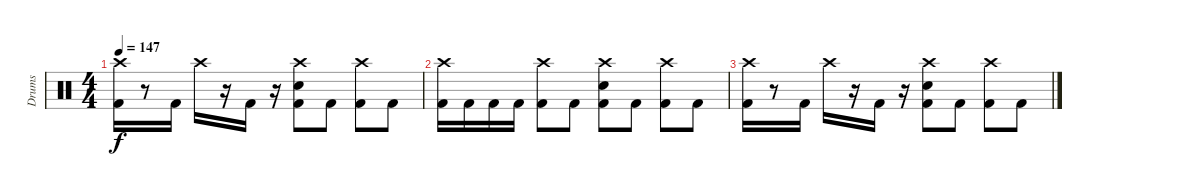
\track ("Drums" "Drums") {instrument percussion}
\staff {score}
\articulation defaults
\ts (4 4)
\tempo 147
\clef neutral
\ks c
("Crash high (hit)" "Kick (hit) 2").16{dy f} r.8 "Kick (hit) 2".16 "Crash high (hit)".16 r.16 "Kick (hit) 2".16 r.16 ("Crash high (hit)" "Snare (hit) 2" "Kick (hit) 2").8 "Kick (hit) 2".8 ("Crash high (hit)" "Kick (hit) 2").8 "Kick (hit) 2".8 |
("Crash high (hit)" "Kick (hit) 2").16 "Kick (hit) 2".16 "Kick (hit) 2".16 "Kick (hit) 2".16 ("Crash high (hit)" "Kick (hit) 2").8 "Kick (hit) 2".8 ("Crash high (hit)" "Snare (hit) 2" "Kick (hit) 2").8 "Kick (hit) 2".8 ("Crash high (hit)" "Kick (hit) 2").8 "Kick (hit) 2".8 |
("Crash high (hit)" "Kick (hit) 2").16 r.8 "Kick (hit) 2".16 "Crash high (hit)".16 r.16 "Kick (hit) 2".16 r.16 ("Crash high (hit)" "Snare (hit) 2" "Kick (hit) 2").8 "Kick (hit) 2".8 ("Crash high (hit)" "Kick (hit) 2").8 "Kick (hit) 2".8
